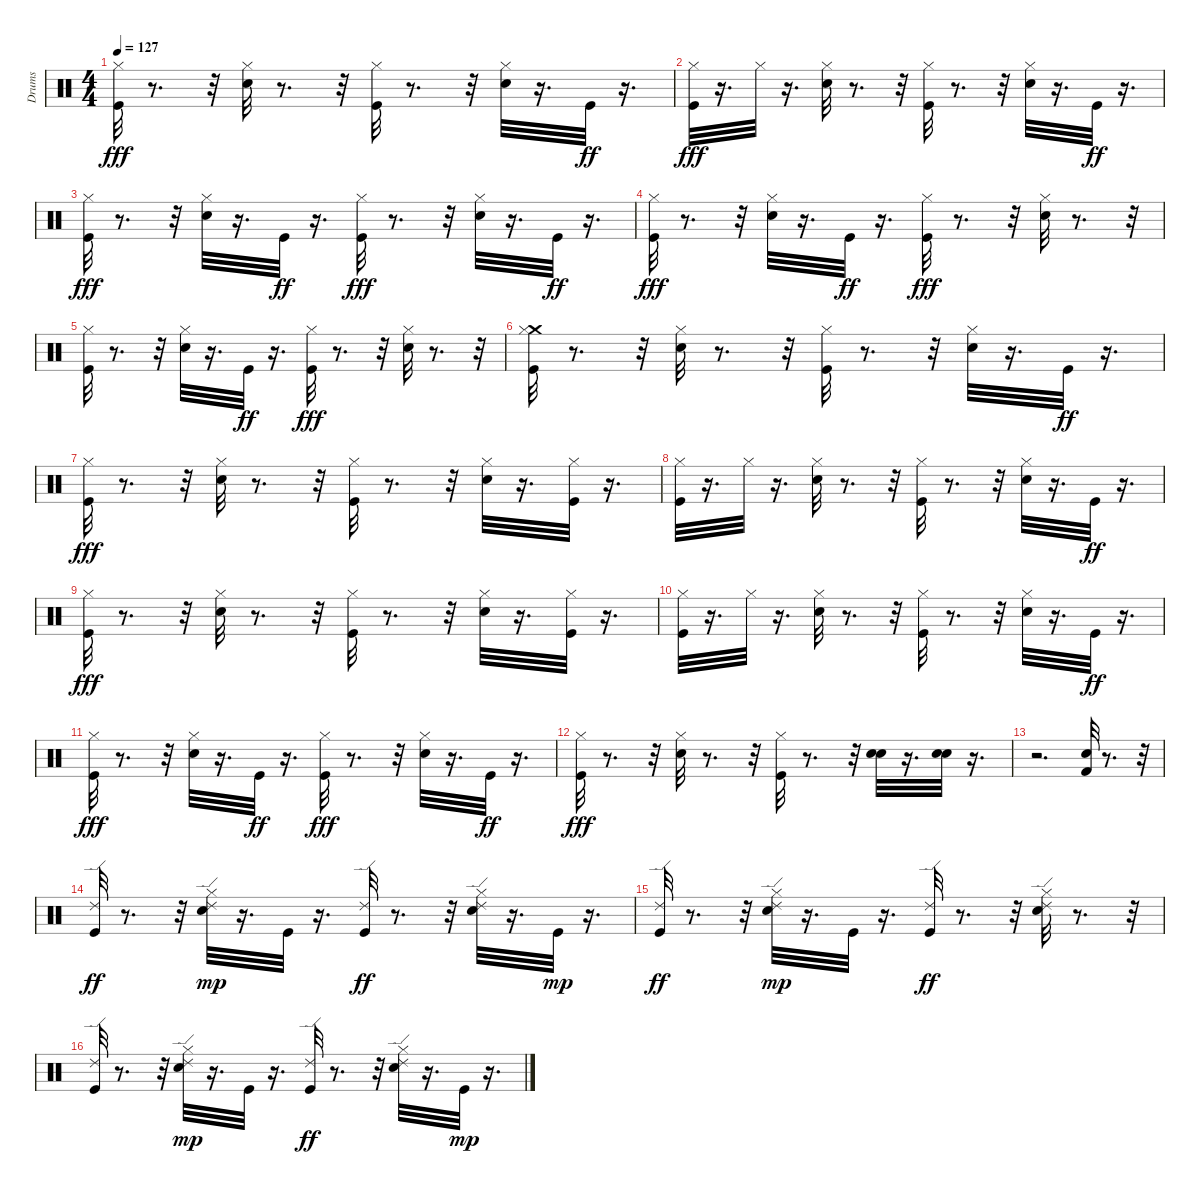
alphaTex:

\track (" Drums" " Drums") {instrument percussion}
\staff {score}
\articulation defaults
\ts (4 4)
\tempo 127
\clef neutral
\ks c
("Hi-Hat (closed)" "Kick (hit)").32{dy fff} r.8{d} r.32 ("Electric Snare (hit)" "Hi-Hat (closed)").32 r.8{d} r.32 ("Kick (hit)" "Hi-Hat (closed)").32 r.8{d} r.32 ("Electric Snare (hit)" "Hi-Hat (closed)").32 r.16{d} "Kick (hit)".32{dy ff} r.16{d} |
("Kick (hit)" "Hi-Hat (closed)").32{dy fff} r.16{d} "Hi-Hat (closed)".32 r.16{d} ("Electric Snare (hit)" "Hi-Hat (closed)").32 r.8{d} r.32 ("Kick (hit)" "Hi-Hat (closed)").32 r.8{d} r.32 ("Electric Snare (hit)" "Hi-Hat (closed)").32 r.16{d} "Kick (hit)".32{dy ff} r.16{d} |
("Kick (hit)" "Hi-Hat (closed)").32{dy fff} r.8{d} r.32 ("Electric Snare (hit)" "Hi-Hat (closed)").32 r.16{d} "Kick (hit)".32{dy ff} r.16{d} ("Kick (hit)" "Hi-Hat (closed)").32{dy fff} r.8{d} r.32 ("Electric Snare (hit)" "Hi-Hat (closed)").32 r.16{d} "Kick (hit)".32{dy ff} r.16{d} |
("Kick (hit)" "Hi-Hat (closed)").32{dy fff} r.8{d} r.32 ("Electric Snare (hit)" "Hi-Hat (closed)").32 r.16{d} "Kick (hit)".32{dy ff} r.16{d} ("Kick (hit)" "Hi-Hat (closed)").32{dy fff} r.8{d} r.32 ("Electric Snare (hit)" "Hi-Hat (closed)").32 r.8{d} r.32 |
("Hi-Hat (closed)" "Kick (hit)").32 r.8{d} r.32 ("Electric Snare (hit)" "Hi-Hat (closed)").32 r.16{d} "Kick (hit)".32{dy ff} r.16{d} ("Kick (hit)" "Hi-Hat (closed)").32{dy fff} r.8{d} r.32 ("Electric Snare (hit)" "Hi-Hat (closed)").32 r.8{d} r.32 |
("Crash medium (hit)" "Kick (hit)" "Hi-Hat (closed)").32 r.8{d} r.32 ("Electric Snare (hit)" "Hi-Hat (closed)").32 r.8{d} r.32 ("Kick (hit)" "Hi-Hat (closed)").32 r.8{d} r.32 ("Electric Snare (hit)" "Hi-Hat (closed)").32 r.16{d} "Kick (hit)".32{dy ff} r.16{d} |
("Kick (hit)" "Hi-Hat (closed)").32{dy fff} r.8{d} r.32 ("Electric Snare (hit)" "Hi-Hat (closed)").32 r.8{d} r.32 ("Kick (hit)" "Hi-Hat (closed)").32 r.8{d} r.32 ("Electric Snare (hit)" "Hi-Hat (closed)").32 r.16{d} ("Kick (hit)" "Hi-Hat (closed)").32 r.16{d} |
("Kick (hit)" "Hi-Hat (closed)").32 r.16{d} "Hi-Hat (closed)".32 r.16{d} ("Electric Snare (hit)" "Hi-Hat (closed)").32 r.8{d} r.32 ("Kick (hit)" "Hi-Hat (closed)").32 r.8{d} r.32 ("Electric Snare (hit)" "Hi-Hat (closed)").32 r.16{d} "Kick (hit)".32{dy ff} r.16{d} |
("Hi-Hat (closed)" "Kick (hit)").32{dy fff} r.8{d} r.32 ("Electric Snare (hit)" "Hi-Hat (closed)").32 r.8{d} r.32 ("Kick (hit)" "Hi-Hat (closed)").32 r.8{d} r.32 ("Electric Snare (hit)" "Hi-Hat (closed)").32 r.16{d} ("Kick (hit)" "Hi-Hat (closed)").32 r.16{d} |
("Kick (hit)" "Hi-Hat (closed)").32 r.16{d} "Hi-Hat (closed)".32 r.16{d} ("Electric Snare (hit)" "Hi-Hat (closed)").32 r.8{d} r.32 ("Kick (hit)" "Hi-Hat (closed)").32 r.8{d} r.32 ("Electric Snare (hit)" "Hi-Hat (closed)").32 r.16{d} "Kick (hit)".32{dy ff} r.16{d} |
("Kick (hit)" "Hi-Hat (closed)").32{dy fff} r.8{d} r.32 ("Electric Snare (hit)" "Hi-Hat (closed)").32 r.16{d} "Kick (hit)".32{dy ff} r.16{d} ("Kick (hit)" "Hi-Hat (closed)").32{dy fff} r.8{d} r.32 ("Electric Snare (hit)" "Hi-Hat (closed)").32 r.16{d} "Kick (hit)".32{dy ff} r.16{d} |
("Hi-Hat (closed)" "Kick (hit)").32{dy fff} r.8{d} r.32 ("Hi-Hat (closed)" "Electric Snare (hit)").32 r.8{d} r.32 ("Kick (hit)" "Hi-Hat (closed)").32 r.8{d} r.32 ("Electric Snare (hit)" "Snare (hit) 2").32 r.16{d} ("Electric Snare (hit)" "Snare (hit) 2").32 r.16{d} |
r.2{d} ("Snare (hit) 2" "Kick (hit) 2").32 r.8{d} r.32 |
("Ride (edge) 2" "Kick (hit)").32{dy ff} r.8{d} r.32 ("Electric Snare (hit)" "Hi-Hat (closed)" "Ride (edge) 2").32{dy mp} r.16{d} "Kick (hit)".32 r.16{d} ("Kick (hit)" "Ride (edge) 2").32{dy ff} r.8{d} r.32 ("Electric Snare (hit)" "Hi-Hat (closed)" "Ride (edge) 2").32 r.16{d} "Kick (hit)".32{dy mp} r.16{d} |
("Kick (hit)" "Ride (edge) 2").32{dy ff} r.8{d} r.32 ("Electric Snare (hit)" "Hi-Hat (closed)" "Ride (edge) 2").32{dy mp} r.16{d} "Kick (hit)".32 r.16{d} ("Kick (hit)" "Ride (edge) 2").32{dy ff} r.8{d} r.32 ("Electric Snare (hit)" "Hi-Hat (closed)" "Ride (edge) 2").32 r.8{d} r.32 |
("Kick (hit)" "Ride (edge) 2").32 r.8{d} r.32 ("Electric Snare (hit)" "Hi-Hat (closed)" "Ride (edge) 2").32{dy mp} r.16{d} "Kick (hit)".32 r.16{d} ("Kick (hit)" "Ride (edge) 2").32{dy ff} r.8{d} r.32 ("Electric Snare (hit)" "Hi-Hat (closed)" "Ride (edge) 2").32 r.16{d} "Kick (hit)".32{dy mp} r.16{d}
